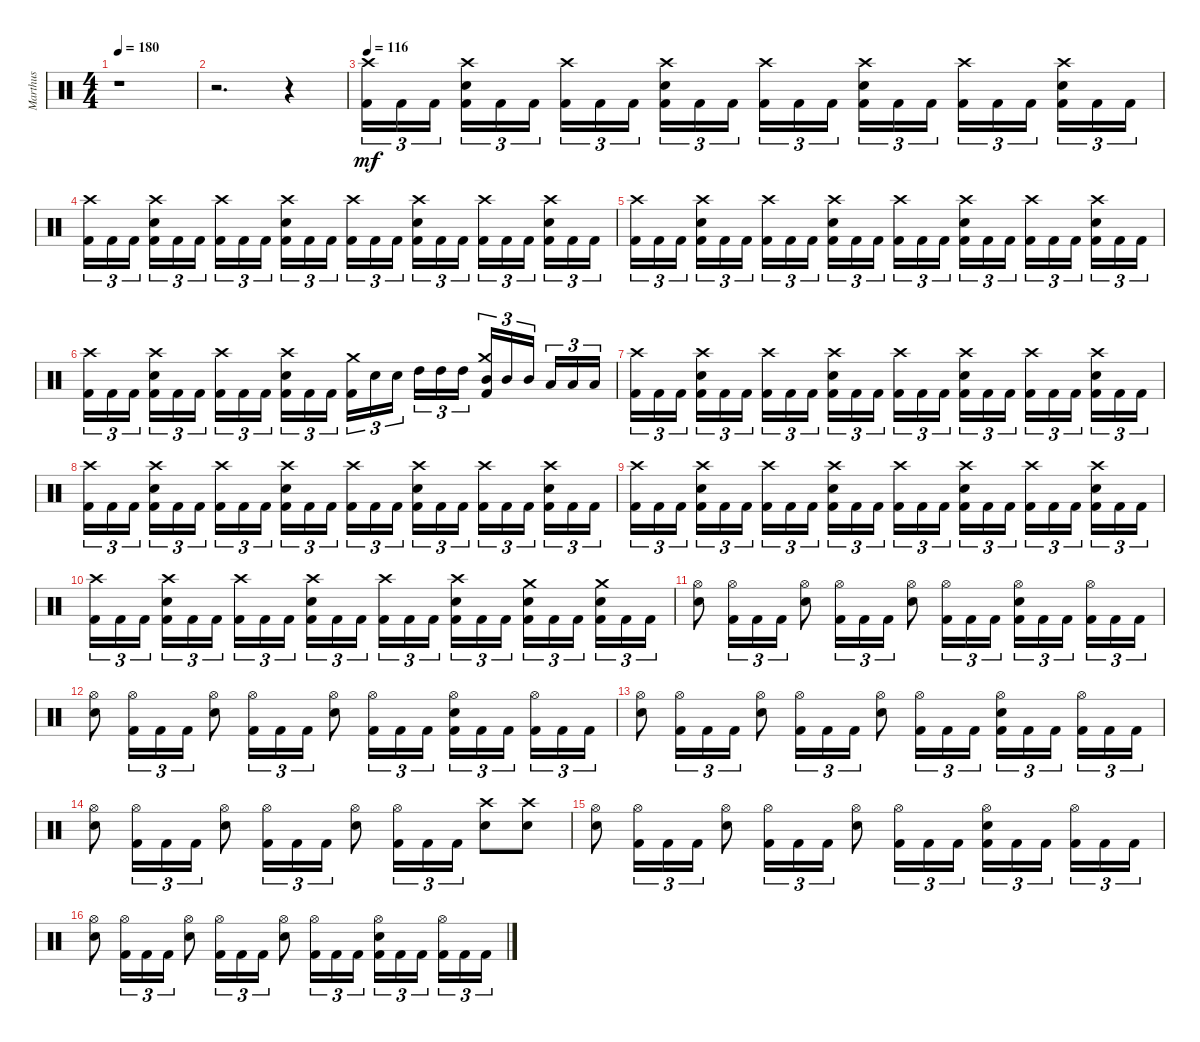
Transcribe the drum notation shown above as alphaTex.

\track ("Marthus" "Marthus") {instrument percussion}
\staff {score}
\articulation defaults
\ts (4 4)
\tempo 180
\clef neutral
\ks c
r.1{dy mf} |
r.2{d} r.4 |
\tempo 116
("Crash high (hit)" "Kick (hit) 2").16{tu (3 2)} "Kick (hit) 2".16{tu (3 2)} "Kick (hit) 2".16{tu (3 2) beam splitsecondary} ("Crash high (hit)" "Electric Snare (hit)" "Kick (hit) 2").16{tu (3 2)} "Kick (hit) 2".16{tu (3 2)} "Kick (hit) 2".16{tu (3 2)} ("Crash high (hit)" "Kick (hit) 2").16{tu (3 2)} "Kick (hit) 2".16{tu (3 2)} "Kick (hit) 2".16{tu (3 2) beam splitsecondary} ("Crash high (hit)" "Electric Snare (hit)" "Kick (hit) 2").16{tu (3 2)} "Kick (hit) 2".16{tu (3 2)} "Kick (hit) 2".16{tu (3 2)} ("Crash high (hit)" "Kick (hit) 2").16{tu (3 2)} "Kick (hit) 2".16{tu (3 2)} "Kick (hit) 2".16{tu (3 2) beam splitsecondary} ("Crash high (hit)" "Electric Snare (hit)" "Kick (hit) 2").16{tu (3 2)} "Kick (hit) 2".16{tu (3 2)} "Kick (hit) 2".16{tu (3 2)} ("Crash high (hit)" "Kick (hit) 2").16{tu (3 2)} "Kick (hit) 2".16{tu (3 2)} "Kick (hit) 2".16{tu (3 2) beam splitsecondary} ("Crash high (hit)" "Electric Snare (hit)" "Kick (hit) 2").16{tu (3 2)} "Kick (hit) 2".16{tu (3 2)} "Kick (hit) 2".16{tu (3 2)} |
("Crash high (hit)" "Kick (hit) 2").16{tu (3 2)} "Kick (hit) 2".16{tu (3 2)} "Kick (hit) 2".16{tu (3 2) beam splitsecondary} ("Crash high (hit)" "Electric Snare (hit)" "Kick (hit) 2").16{tu (3 2)} "Kick (hit) 2".16{tu (3 2)} "Kick (hit) 2".16{tu (3 2)} ("Crash high (hit)" "Kick (hit) 2").16{tu (3 2)} "Kick (hit) 2".16{tu (3 2)} "Kick (hit) 2".16{tu (3 2) beam splitsecondary} ("Crash high (hit)" "Electric Snare (hit)" "Kick (hit) 2").16{tu (3 2)} "Kick (hit) 2".16{tu (3 2)} "Kick (hit) 2".16{tu (3 2)} ("Crash high (hit)" "Kick (hit) 2").16{tu (3 2)} "Kick (hit) 2".16{tu (3 2)} "Kick (hit) 2".16{tu (3 2) beam splitsecondary} ("Crash high (hit)" "Electric Snare (hit)" "Kick (hit) 2").16{tu (3 2)} "Kick (hit) 2".16{tu (3 2)} "Kick (hit) 2".16{tu (3 2)} ("Crash high (hit)" "Kick (hit) 2").16{tu (3 2)} "Kick (hit) 2".16{tu (3 2)} "Kick (hit) 2".16{tu (3 2) beam splitsecondary} ("Crash high (hit)" "Electric Snare (hit)" "Kick (hit) 2").16{tu (3 2)} "Kick (hit) 2".16{tu (3 2)} "Kick (hit) 2".16{tu (3 2)} |
("Crash high (hit)" "Kick (hit) 2").16{tu (3 2)} "Kick (hit) 2".16{tu (3 2)} "Kick (hit) 2".16{tu (3 2) beam splitsecondary} ("Crash high (hit)" "Electric Snare (hit)" "Kick (hit) 2").16{tu (3 2)} "Kick (hit) 2".16{tu (3 2)} "Kick (hit) 2".16{tu (3 2)} ("Crash high (hit)" "Kick (hit) 2").16{tu (3 2)} "Kick (hit) 2".16{tu (3 2)} "Kick (hit) 2".16{tu (3 2) beam splitsecondary} ("Crash high (hit)" "Electric Snare (hit)" "Kick (hit) 2").16{tu (3 2)} "Kick (hit) 2".16{tu (3 2)} "Kick (hit) 2".16{tu (3 2)} ("Crash high (hit)" "Kick (hit) 2").16{tu (3 2)} "Kick (hit) 2".16{tu (3 2)} "Kick (hit) 2".16{tu (3 2) beam splitsecondary} ("Crash high (hit)" "Electric Snare (hit)" "Kick (hit) 2").16{tu (3 2)} "Kick (hit) 2".16{tu (3 2)} "Kick (hit) 2".16{tu (3 2)} ("Crash high (hit)" "Kick (hit) 2").16{tu (3 2)} "Kick (hit) 2".16{tu (3 2)} "Kick (hit) 2".16{tu (3 2) beam splitsecondary} ("Crash high (hit)" "Electric Snare (hit)" "Kick (hit) 2").16{tu (3 2)} "Kick (hit) 2".16{tu (3 2)} "Kick (hit) 2".16{tu (3 2)} |
("Crash high (hit)" "Kick (hit) 2").16{tu (3 2)} "Kick (hit) 2".16{tu (3 2)} "Kick (hit) 2".16{tu (3 2) beam splitsecondary} ("Crash high (hit)" "Electric Snare (hit)" "Kick (hit) 2").16{tu (3 2)} "Kick (hit) 2".16{tu (3 2)} "Kick (hit) 2".16{tu (3 2)} ("Crash high (hit)" "Kick (hit) 2").16{tu (3 2)} "Kick (hit) 2".16{tu (3 2)} "Kick (hit) 2".16{tu (3 2) beam splitsecondary} ("Crash high (hit)" "Electric Snare (hit)" "Kick (hit) 2").16{tu (3 2)} "Kick (hit) 2".16{tu (3 2)} "Kick (hit) 2".16{tu (3 2)} ("Crash medium (hit)" "Kick (hit) 2").16{tu (3 2)} "Electric Snare (hit)".16{tu (3 2)} "Electric Snare (hit)".16{tu (3 2) beam splitsecondary} "High Tom (hit)".16{tu (3 2)} "High Tom (hit)".16{tu (3 2)} "High Tom (hit)".16{tu (3 2)} ("Crash medium (hit)" "Mid Tom (hit)" "Kick (hit) 2").16{tu (3 2)} "Mid Tom (hit)".16{tu (3 2)} "Mid Tom (hit)".16{tu (3 2) beam splitsecondary} "Low Tom (hit)".16{tu (3 2)} "Low Tom (hit)".16{tu (3 2)} "Low Tom (hit)".16{tu (3 2)} |
("Crash high (hit)" "Kick (hit) 2").16{tu (3 2)} "Kick (hit) 2".16{tu (3 2)} "Kick (hit) 2".16{tu (3 2) beam splitsecondary} ("Crash high (hit)" "Electric Snare (hit)" "Kick (hit) 2").16{tu (3 2)} "Kick (hit) 2".16{tu (3 2)} "Kick (hit) 2".16{tu (3 2)} ("Crash high (hit)" "Kick (hit) 2").16{tu (3 2)} "Kick (hit) 2".16{tu (3 2)} "Kick (hit) 2".16{tu (3 2) beam splitsecondary} ("Crash high (hit)" "Electric Snare (hit)" "Kick (hit) 2").16{tu (3 2)} "Kick (hit) 2".16{tu (3 2)} "Kick (hit) 2".16{tu (3 2)} ("Crash high (hit)" "Kick (hit) 2").16{tu (3 2)} "Kick (hit) 2".16{tu (3 2)} "Kick (hit) 2".16{tu (3 2) beam splitsecondary} ("Crash high (hit)" "Electric Snare (hit)" "Kick (hit) 2").16{tu (3 2)} "Kick (hit) 2".16{tu (3 2)} "Kick (hit) 2".16{tu (3 2)} ("Crash high (hit)" "Kick (hit) 2").16{tu (3 2)} "Kick (hit) 2".16{tu (3 2)} "Kick (hit) 2".16{tu (3 2) beam splitsecondary} ("Crash high (hit)" "Electric Snare (hit)" "Kick (hit) 2").16{tu (3 2)} "Kick (hit) 2".16{tu (3 2)} "Kick (hit) 2".16{tu (3 2)} |
("Crash high (hit)" "Kick (hit) 2").16{tu (3 2)} "Kick (hit) 2".16{tu (3 2)} "Kick (hit) 2".16{tu (3 2) beam splitsecondary} ("Crash high (hit)" "Electric Snare (hit)" "Kick (hit) 2").16{tu (3 2)} "Kick (hit) 2".16{tu (3 2)} "Kick (hit) 2".16{tu (3 2)} ("Crash high (hit)" "Kick (hit) 2").16{tu (3 2)} "Kick (hit) 2".16{tu (3 2)} "Kick (hit) 2".16{tu (3 2) beam splitsecondary} ("Crash high (hit)" "Electric Snare (hit)" "Kick (hit) 2").16{tu (3 2)} "Kick (hit) 2".16{tu (3 2)} "Kick (hit) 2".16{tu (3 2)} ("Crash high (hit)" "Kick (hit) 2").16{tu (3 2)} "Kick (hit) 2".16{tu (3 2)} "Kick (hit) 2".16{tu (3 2) beam splitsecondary} ("Crash high (hit)" "Electric Snare (hit)" "Kick (hit) 2").16{tu (3 2)} "Kick (hit) 2".16{tu (3 2)} "Kick (hit) 2".16{tu (3 2)} ("Crash high (hit)" "Kick (hit) 2").16{tu (3 2)} "Kick (hit) 2".16{tu (3 2)} "Kick (hit) 2".16{tu (3 2) beam splitsecondary} ("Crash high (hit)" "Electric Snare (hit)" "Kick (hit) 2").16{tu (3 2)} "Kick (hit) 2".16{tu (3 2)} "Kick (hit) 2".16{tu (3 2)} |
("Crash high (hit)" "Kick (hit) 2").16{tu (3 2)} "Kick (hit) 2".16{tu (3 2)} "Kick (hit) 2".16{tu (3 2) beam splitsecondary} ("Crash high (hit)" "Electric Snare (hit)" "Kick (hit) 2").16{tu (3 2)} "Kick (hit) 2".16{tu (3 2)} "Kick (hit) 2".16{tu (3 2)} ("Crash high (hit)" "Kick (hit) 2").16{tu (3 2)} "Kick (hit) 2".16{tu (3 2)} "Kick (hit) 2".16{tu (3 2) beam splitsecondary} ("Crash high (hit)" "Electric Snare (hit)" "Kick (hit) 2").16{tu (3 2)} "Kick (hit) 2".16{tu (3 2)} "Kick (hit) 2".16{tu (3 2)} ("Crash high (hit)" "Kick (hit) 2").16{tu (3 2)} "Kick (hit) 2".16{tu (3 2)} "Kick (hit) 2".16{tu (3 2) beam splitsecondary} ("Crash high (hit)" "Electric Snare (hit)" "Kick (hit) 2").16{tu (3 2)} "Kick (hit) 2".16{tu (3 2)} "Kick (hit) 2".16{tu (3 2)} ("Crash high (hit)" "Kick (hit) 2").16{tu (3 2)} "Kick (hit) 2".16{tu (3 2)} "Kick (hit) 2".16{tu (3 2) beam splitsecondary} ("Crash high (hit)" "Electric Snare (hit)" "Kick (hit) 2").16{tu (3 2)} "Kick (hit) 2".16{tu (3 2)} "Kick (hit) 2".16{tu (3 2)} |
("Crash high (hit)" "Kick (hit) 2").16{tu (3 2)} "Kick (hit) 2".16{tu (3 2)} "Kick (hit) 2".16{tu (3 2) beam splitsecondary} ("Crash high (hit)" "Electric Snare (hit)" "Kick (hit) 2").16{tu (3 2)} "Kick (hit) 2".16{tu (3 2)} "Kick (hit) 2".16{tu (3 2)} ("Crash high (hit)" "Kick (hit) 2").16{tu (3 2)} "Kick (hit) 2".16{tu (3 2)} "Kick (hit) 2".16{tu (3 2) beam splitsecondary} ("Crash high (hit)" "Electric Snare (hit)" "Kick (hit) 2").16{tu (3 2)} "Kick (hit) 2".16{tu (3 2)} "Kick (hit) 2".16{tu (3 2)} ("Crash high (hit)" "Kick (hit) 2").16{tu (3 2)} "Kick (hit) 2".16{tu (3 2)} "Kick (hit) 2".16{tu (3 2) beam splitsecondary} ("Crash high (hit)" "Electric Snare (hit)" "Kick (hit) 2").16{tu (3 2)} "Kick (hit) 2".16{tu (3 2)} "Kick (hit) 2".16{tu (3 2)} ("Crash medium (hit)" "Electric Snare (hit)" "Kick (hit) 2").16{tu (3 2)} "Kick (hit) 2".16{tu (3 2)} "Kick (hit) 2".16{tu (3 2) beam splitsecondary} ("Crash medium (hit)" "Electric Snare (hit)" "Kick (hit) 2").16{tu (3 2)} "Kick (hit) 2".16{tu (3 2)} "Kick (hit) 2".16{tu (3 2)} |
("Hi-Hat (open)" "Electric Snare (hit)").8 ("Hi-Hat (open)" "Kick (hit) 2").16{tu (3 2)} "Kick (hit) 2".16{tu (3 2)} "Kick (hit) 2".16{tu (3 2)} ("Hi-Hat (open)" "Electric Snare (hit)").8 ("Hi-Hat (open)" "Kick (hit) 2").16{tu (3 2)} "Kick (hit) 2".16{tu (3 2)} "Kick (hit) 2".16{tu (3 2)} ("Hi-Hat (open)" "Electric Snare (hit)").8 ("Hi-Hat (open)" "Kick (hit) 2").16{tu (3 2)} "Kick (hit) 2".16{tu (3 2)} "Kick (hit) 2".16{tu (3 2)} ("Hi-Hat (open)" "Electric Snare (hit)" "Kick (hit) 2").16{tu (3 2)} "Kick (hit) 2".16{tu (3 2)} "Kick (hit) 2".16{tu (3 2) beam splitsecondary} ("Hi-Hat (open)" "Kick (hit) 2").16{tu (3 2)} "Kick (hit) 2".16{tu (3 2)} "Kick (hit) 2".16{tu (3 2)} |
("Hi-Hat (open)" "Electric Snare (hit)").8 ("Hi-Hat (open)" "Kick (hit) 2").16{tu (3 2)} "Kick (hit) 2".16{tu (3 2)} "Kick (hit) 2".16{tu (3 2)} ("Hi-Hat (open)" "Electric Snare (hit)").8 ("Hi-Hat (open)" "Kick (hit) 2").16{tu (3 2)} "Kick (hit) 2".16{tu (3 2)} "Kick (hit) 2".16{tu (3 2)} ("Hi-Hat (open)" "Electric Snare (hit)").8 ("Hi-Hat (open)" "Kick (hit) 2").16{tu (3 2)} "Kick (hit) 2".16{tu (3 2)} "Kick (hit) 2".16{tu (3 2)} ("Hi-Hat (open)" "Electric Snare (hit)" "Kick (hit) 2").16{tu (3 2)} "Kick (hit) 2".16{tu (3 2)} "Kick (hit) 2".16{tu (3 2) beam splitsecondary} ("Hi-Hat (open)" "Kick (hit) 2").16{tu (3 2)} "Kick (hit) 2".16{tu (3 2)} "Kick (hit) 2".16{tu (3 2)} |
("Hi-Hat (open)" "Electric Snare (hit)").8 ("Hi-Hat (open)" "Kick (hit) 2").16{tu (3 2)} "Kick (hit) 2".16{tu (3 2)} "Kick (hit) 2".16{tu (3 2)} ("Hi-Hat (open)" "Electric Snare (hit)").8 ("Hi-Hat (open)" "Kick (hit) 2").16{tu (3 2)} "Kick (hit) 2".16{tu (3 2)} "Kick (hit) 2".16{tu (3 2)} ("Hi-Hat (open)" "Electric Snare (hit)").8 ("Hi-Hat (open)" "Kick (hit) 2").16{tu (3 2)} "Kick (hit) 2".16{tu (3 2)} "Kick (hit) 2".16{tu (3 2)} ("Hi-Hat (open)" "Electric Snare (hit)" "Kick (hit) 2").16{tu (3 2)} "Kick (hit) 2".16{tu (3 2)} "Kick (hit) 2".16{tu (3 2) beam splitsecondary} ("Hi-Hat (open)" "Kick (hit) 2").16{tu (3 2)} "Kick (hit) 2".16{tu (3 2)} "Kick (hit) 2".16{tu (3 2)} |
("Hi-Hat (open)" "Electric Snare (hit)").8 ("Hi-Hat (open)" "Kick (hit) 2").16{tu (3 2)} "Kick (hit) 2".16{tu (3 2)} "Kick (hit) 2".16{tu (3 2)} ("Hi-Hat (open)" "Electric Snare (hit)").8 ("Hi-Hat (open)" "Kick (hit) 2").16{tu (3 2)} "Kick (hit) 2".16{tu (3 2)} "Kick (hit) 2".16{tu (3 2)} ("Hi-Hat (open)" "Electric Snare (hit)").8 ("Hi-Hat (open)" "Kick (hit) 2").16{tu (3 2)} "Kick (hit) 2".16{tu (3 2)} "Kick (hit) 2".16{tu (3 2)} ("Crash high (hit)" "Electric Snare (hit)").8 ("Crash high (hit)" "Electric Snare (hit)").8 |
("Hi-Hat (open)" "Electric Snare (hit)").8 ("Hi-Hat (open)" "Kick (hit) 2").16{tu (3 2)} "Kick (hit) 2".16{tu (3 2)} "Kick (hit) 2".16{tu (3 2)} ("Hi-Hat (open)" "Electric Snare (hit)").8 ("Hi-Hat (open)" "Kick (hit) 2").16{tu (3 2)} "Kick (hit) 2".16{tu (3 2)} "Kick (hit) 2".16{tu (3 2)} ("Hi-Hat (open)" "Electric Snare (hit)").8 ("Hi-Hat (open)" "Kick (hit) 2").16{tu (3 2)} "Kick (hit) 2".16{tu (3 2)} "Kick (hit) 2".16{tu (3 2)} ("Hi-Hat (open)" "Electric Snare (hit)" "Kick (hit) 2").16{tu (3 2)} "Kick (hit) 2".16{tu (3 2)} "Kick (hit) 2".16{tu (3 2) beam splitsecondary} ("Hi-Hat (open)" "Kick (hit) 2").16{tu (3 2)} "Kick (hit) 2".16{tu (3 2)} "Kick (hit) 2".16{tu (3 2)} |
("Hi-Hat (open)" "Electric Snare (hit)").8 ("Hi-Hat (open)" "Kick (hit) 2").16{tu (3 2)} "Kick (hit) 2".16{tu (3 2)} "Kick (hit) 2".16{tu (3 2)} ("Hi-Hat (open)" "Electric Snare (hit)").8 ("Hi-Hat (open)" "Kick (hit) 2").16{tu (3 2)} "Kick (hit) 2".16{tu (3 2)} "Kick (hit) 2".16{tu (3 2)} ("Hi-Hat (open)" "Electric Snare (hit)").8 ("Hi-Hat (open)" "Kick (hit) 2").16{tu (3 2)} "Kick (hit) 2".16{tu (3 2)} "Kick (hit) 2".16{tu (3 2)} ("Hi-Hat (open)" "Electric Snare (hit)" "Kick (hit) 2").16{tu (3 2)} "Kick (hit) 2".16{tu (3 2)} "Kick (hit) 2".16{tu (3 2) beam splitsecondary} ("Hi-Hat (open)" "Kick (hit) 2").16{tu (3 2)} "Kick (hit) 2".16{tu (3 2)} "Kick (hit) 2".16{tu (3 2)}
